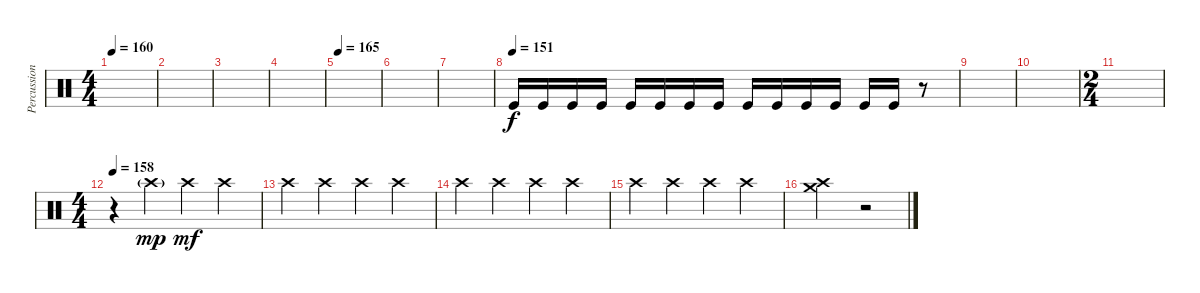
\track ("Percussion2" "Percussion") {instrument percussion}
\staff {score}
\articulation defaults
\ts (4 4)
\tempo 160
\clef neutral
\ks c
|
|
|
|
\tempo 165
|
|
|
\tempo (151)
"Kick (hit)".16 "Kick (hit)".16 "Kick (hit)".16 "Kick (hit)".16 "Kick (hit)".16 "Kick (hit)".16 "Kick (hit)".16 "Kick (hit)".16 "Kick (hit)".16 "Kick (hit)".16 "Kick (hit)".16 "Kick (hit)".16 "Kick (hit)".16 "Kick (hit)".16 r.8 |
|
|
\ts (2 4)
|
\ts (4 4)
\tempo 158
r.4 "Crash high (hit)"{g}.4{dy mp} "Crash high (hit)".4{dy mf} "Crash high (hit)".4 |
"Crash high (hit)".4 "Crash high (hit)".4 "Crash high (hit)".4 "Crash high (hit)".4 |
"Crash high (hit)".4 "Crash high (hit)".4 "Crash high (hit)".4 "Crash high (hit)".4 |
"Crash high (hit)".4 "Crash high (hit)".4 "Crash high (hit)".4 "Crash high (hit)".4 |
("Crash medium (hit)" "Crash high (hit)").2 r.2
